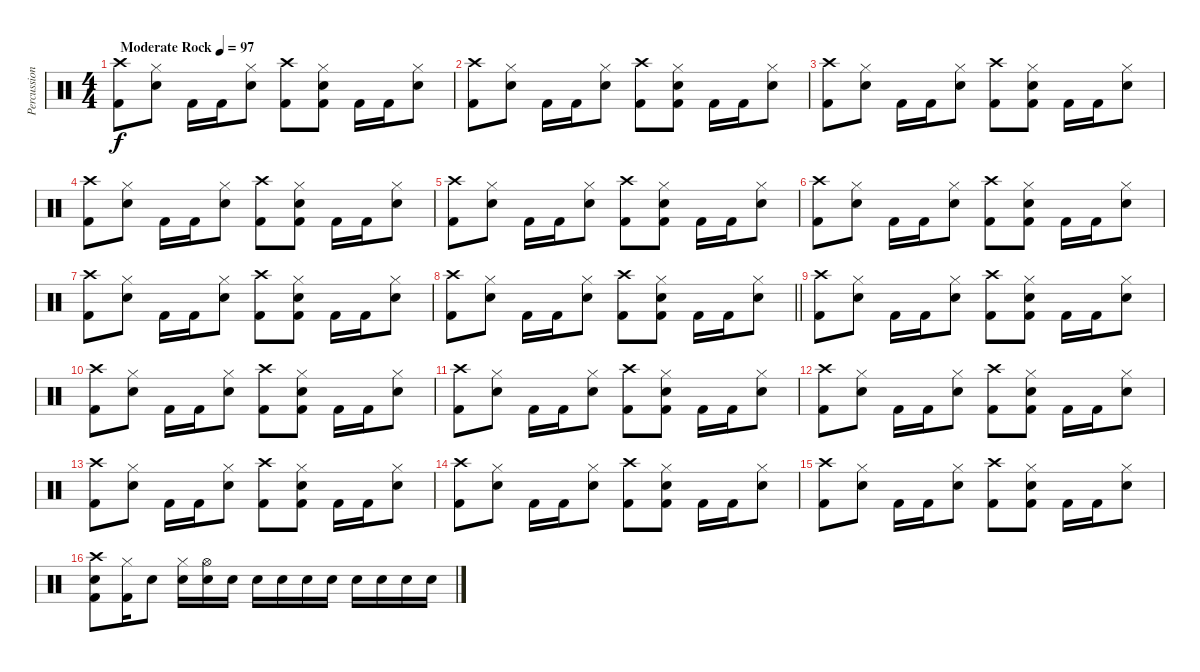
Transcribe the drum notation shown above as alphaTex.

\track ("Percussion" "Percussion") {instrument percussion}
\staff {score}
\articulation defaults
\ts (4 4)
\tempo (97 "Moderate Rock")
\clef neutral
\ks c
("Crash high (hit)" "Kick (hit) 2").8{dy f} ("Hi-Hat (closed)" "Snare (hit) 2").8 "Kick (hit) 2".16 "Kick (hit) 2".16 ("Hi-Hat (closed)" "Snare (hit) 2").8 ("Crash high (hit)" "Kick (hit) 2").8 ("Hi-Hat (closed)" "Snare (hit) 2" "Kick (hit) 2").8 "Kick (hit) 2".16 "Kick (hit) 2".16 ("Hi-Hat (closed)" "Snare (hit) 2").8 |
("Crash high (hit)" "Kick (hit) 2").8 ("Hi-Hat (closed)" "Snare (hit) 2").8 "Kick (hit) 2".16 "Kick (hit) 2".16 ("Hi-Hat (closed)" "Snare (hit) 2").8 ("Crash high (hit)" "Kick (hit) 2").8 ("Hi-Hat (closed)" "Snare (hit) 2" "Kick (hit) 2").8 "Kick (hit) 2".16 "Kick (hit) 2".16 ("Hi-Hat (closed)" "Snare (hit) 2").8 |
("Crash high (hit)" "Kick (hit) 2").8 ("Hi-Hat (closed)" "Snare (hit) 2").8 "Kick (hit) 2".16 "Kick (hit) 2".16 ("Hi-Hat (closed)" "Snare (hit) 2").8 ("Crash high (hit)" "Kick (hit) 2").8 ("Hi-Hat (closed)" "Snare (hit) 2" "Kick (hit) 2").8 "Kick (hit) 2".16 "Kick (hit) 2".16 ("Hi-Hat (closed)" "Snare (hit) 2").8 |
("Crash high (hit)" "Kick (hit) 2").8 ("Hi-Hat (closed)" "Snare (hit) 2").8 "Kick (hit) 2".16 "Kick (hit) 2".16 ("Hi-Hat (closed)" "Snare (hit) 2").8 ("Crash high (hit)" "Kick (hit) 2").8 ("Hi-Hat (closed)" "Snare (hit) 2" "Kick (hit) 2").8 "Kick (hit) 2".16 "Kick (hit) 2".16 ("Hi-Hat (closed)" "Snare (hit) 2").8 |
("Crash high (hit)" "Kick (hit) 2").8 ("Hi-Hat (closed)" "Snare (hit) 2").8 "Kick (hit) 2".16 "Kick (hit) 2".16 ("Hi-Hat (closed)" "Snare (hit) 2").8 ("Crash high (hit)" "Kick (hit) 2").8 ("Hi-Hat (closed)" "Snare (hit) 2" "Kick (hit) 2").8 "Kick (hit) 2".16 "Kick (hit) 2".16 ("Hi-Hat (closed)" "Snare (hit) 2").8 |
("Crash high (hit)" "Kick (hit) 2").8 ("Hi-Hat (closed)" "Snare (hit) 2").8 "Kick (hit) 2".16 "Kick (hit) 2".16 ("Hi-Hat (closed)" "Snare (hit) 2").8 ("Crash high (hit)" "Kick (hit) 2").8 ("Hi-Hat (closed)" "Snare (hit) 2" "Kick (hit) 2").8 "Kick (hit) 2".16 "Kick (hit) 2".16 ("Hi-Hat (closed)" "Snare (hit) 2").8 |
("Crash high (hit)" "Kick (hit) 2").8 ("Hi-Hat (closed)" "Snare (hit) 2").8 "Kick (hit) 2".16 "Kick (hit) 2".16 ("Hi-Hat (closed)" "Snare (hit) 2").8 ("Crash high (hit)" "Kick (hit) 2").8 ("Hi-Hat (closed)" "Snare (hit) 2" "Kick (hit) 2").8 "Kick (hit) 2".16 "Kick (hit) 2".16 ("Hi-Hat (closed)" "Snare (hit) 2").8 |
\barLineRight lightlight
("Crash high (hit)" "Kick (hit) 2").8 ("Hi-Hat (closed)" "Snare (hit) 2").8 "Kick (hit) 2".16 "Kick (hit) 2".16 ("Hi-Hat (closed)" "Snare (hit) 2").8 ("Crash high (hit)" "Kick (hit) 2").8 ("Hi-Hat (closed)" "Snare (hit) 2" "Kick (hit) 2").8 "Kick (hit) 2".16 "Kick (hit) 2".16 ("Hi-Hat (closed)" "Snare (hit) 2").8 |
("Crash high (hit)" "Kick (hit) 2").8 ("Hi-Hat (closed)" "Snare (hit) 2").8 "Kick (hit) 2".16 "Kick (hit) 2".16 ("Hi-Hat (closed)" "Snare (hit) 2").8 ("Crash high (hit)" "Kick (hit) 2").8 ("Hi-Hat (closed)" "Snare (hit) 2" "Kick (hit) 2").8 "Kick (hit) 2".16 "Kick (hit) 2".16 ("Hi-Hat (closed)" "Snare (hit) 2").8 |
("Crash high (hit)" "Kick (hit) 2").8 ("Hi-Hat (closed)" "Snare (hit) 2").8 "Kick (hit) 2".16 "Kick (hit) 2".16 ("Hi-Hat (closed)" "Snare (hit) 2").8 ("Crash high (hit)" "Kick (hit) 2").8 ("Hi-Hat (closed)" "Snare (hit) 2" "Kick (hit) 2").8 "Kick (hit) 2".16 "Kick (hit) 2".16 ("Hi-Hat (closed)" "Snare (hit) 2").8 |
("Crash high (hit)" "Kick (hit) 2").8 ("Hi-Hat (closed)" "Snare (hit) 2").8 "Kick (hit) 2".16 "Kick (hit) 2".16 ("Hi-Hat (closed)" "Snare (hit) 2").8 ("Crash high (hit)" "Kick (hit) 2").8 ("Hi-Hat (closed)" "Snare (hit) 2" "Kick (hit) 2").8 "Kick (hit) 2".16 "Kick (hit) 2".16 ("Hi-Hat (closed)" "Snare (hit) 2").8 |
("Crash high (hit)" "Kick (hit) 2").8 ("Hi-Hat (closed)" "Snare (hit) 2").8 "Kick (hit) 2".16 "Kick (hit) 2".16 ("Hi-Hat (closed)" "Snare (hit) 2").8 ("Crash high (hit)" "Kick (hit) 2").8 ("Hi-Hat (closed)" "Snare (hit) 2" "Kick (hit) 2").8 "Kick (hit) 2".16 "Kick (hit) 2".16 ("Hi-Hat (closed)" "Snare (hit) 2").8 |
("Crash high (hit)" "Kick (hit) 2").8 ("Hi-Hat (closed)" "Snare (hit) 2").8 "Kick (hit) 2".16 "Kick (hit) 2".16 ("Hi-Hat (closed)" "Snare (hit) 2").8 ("Crash high (hit)" "Kick (hit) 2").8 ("Hi-Hat (closed)" "Snare (hit) 2" "Kick (hit) 2").8 "Kick (hit) 2".16 "Kick (hit) 2".16 ("Hi-Hat (closed)" "Snare (hit) 2").8 |
("Crash high (hit)" "Kick (hit) 2").8 ("Hi-Hat (closed)" "Snare (hit) 2").8 "Kick (hit) 2".16 "Kick (hit) 2".16 ("Hi-Hat (closed)" "Snare (hit) 2").8 ("Crash high (hit)" "Kick (hit) 2").8 ("Hi-Hat (closed)" "Snare (hit) 2" "Kick (hit) 2").8 "Kick (hit) 2".16 "Kick (hit) 2".16 ("Hi-Hat (closed)" "Snare (hit) 2").8 |
("Crash high (hit)" "Kick (hit) 2").8 ("Hi-Hat (closed)" "Snare (hit) 2").8 "Kick (hit) 2".16 "Kick (hit) 2".16 ("Hi-Hat (closed)" "Snare (hit) 2").8 ("Crash high (hit)" "Kick (hit) 2").8 ("Hi-Hat (closed)" "Snare (hit) 2" "Kick (hit) 2").8 "Kick (hit) 2".16 "Kick (hit) 2".16 ("Hi-Hat (closed)" "Snare (hit) 2").8 |
("Crash high (hit)" "Snare (hit) 2" "Kick (hit) 2").8 ("Hi-Hat (closed)" "Kick (hit) 2").16 "Snare (hit) 2".8 ("Hi-Hat (closed)" "Snare (hit) 2").16 ("Hi-Hat (open)" "Snare (hit) 2").16 "Snare (hit) 2".16 "Snare (hit) 2".16 "Snare (hit) 2".16 "Snare (hit) 2".16 "Snare (hit) 2".16 "Snare (hit) 2".16 "Snare (hit) 2".16 "Snare (hit) 2".16 "Snare (hit) 2".16
